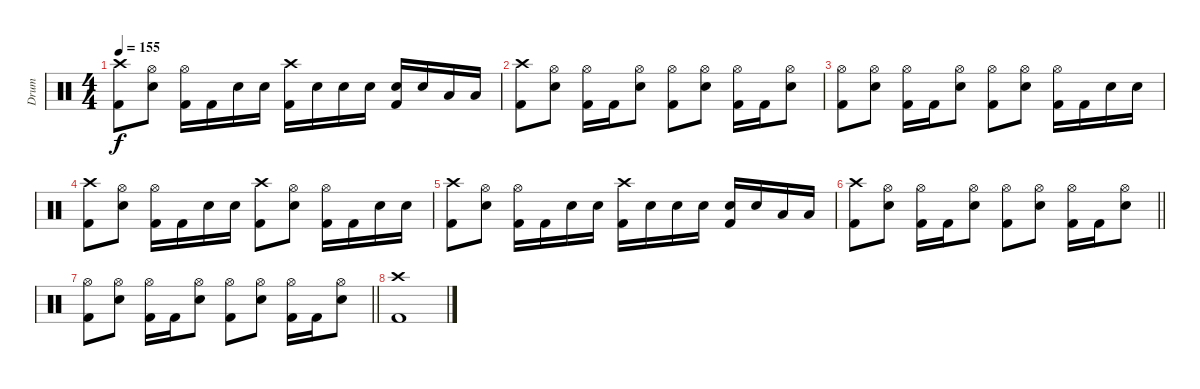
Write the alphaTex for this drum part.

\track ("Drum" "Drum") {solo instrument percussion}
\staff {score}
\articulation defaults
\ts (4 4)
\tempo 155
\clef neutral
\ks c
("Crash high (hit)" "Kick (hit) 2").8{dy f} ("Hi-Hat (open)" "Electric Snare (hit)").8 ("Kick (hit) 2" "Hi-Hat (open)").16 "Kick (hit) 2".16 "Electric Snare (hit)".16 "Electric Snare (hit)".16 ("Crash high (hit)" "Kick (hit) 2").16 "Electric Snare (hit)".16 "Electric Snare (hit)".16 "Electric Snare (hit)".16 ("Electric Snare (hit)" "Kick (hit) 2").16 "Electric Snare (hit)".16 "Low Tom (hit)".16 "Low Tom (hit)".16 |
("Crash high (hit)" "Kick (hit) 2").8 ("Hi-Hat (open)" "Electric Snare (hit)").8 ("Hi-Hat (open)" "Kick (hit) 2").16 "Kick (hit) 2".16 ("Hi-Hat (open)" "Electric Snare (hit)").8 ("Hi-Hat (open)" "Kick (hit) 2").8 ("Hi-Hat (open)" "Electric Snare (hit)").8 ("Kick (hit) 2" "Hi-Hat (open)").16 "Kick (hit) 2".16 ("Hi-Hat (open)" "Electric Snare (hit)").8 |
("Hi-Hat (open)" "Kick (hit) 2").8 ("Hi-Hat (open)" "Electric Snare (hit)").8 ("Hi-Hat (open)" "Kick (hit) 2").16 "Kick (hit) 2".16 ("Hi-Hat (open)" "Electric Snare (hit)").8 ("Hi-Hat (open)" "Kick (hit) 2").8 ("Hi-Hat (open)" "Electric Snare (hit)").8 ("Kick (hit) 2" "Hi-Hat (open)").16 "Kick (hit) 2".16 "Electric Snare (hit)".16 "Electric Snare (hit)".16 |
("Crash high (hit)" "Kick (hit) 2").8 ("Hi-Hat (open)" "Electric Snare (hit)").8 ("Kick (hit) 2" "Hi-Hat (open)").16 "Kick (hit) 2".16 "Electric Snare (hit)".16 "Electric Snare (hit)".16 ("Crash high (hit)" "Kick (hit) 2").8 ("Hi-Hat (open)" "Electric Snare (hit)").8 ("Kick (hit) 2" "Hi-Hat (open)").16 "Kick (hit) 2".16 "Electric Snare (hit)".16 "Electric Snare (hit)".16 |
("Crash high (hit)" "Kick (hit) 2").8 ("Hi-Hat (open)" "Electric Snare (hit)").8 ("Kick (hit) 2" "Hi-Hat (open)").16 "Kick (hit) 2".16 "Electric Snare (hit)".16 "Electric Snare (hit)".16 ("Crash high (hit)" "Kick (hit) 2").16 "Electric Snare (hit)".16 "Electric Snare (hit)".16 "Electric Snare (hit)".16 ("Electric Snare (hit)" "Kick (hit) 2").16 "Electric Snare (hit)".16 "Low Tom (hit)".16 "Low Tom (hit)".16 |
\barLineRight lightlight
("Crash high (hit)" "Kick (hit) 2").8 ("Hi-Hat (open)" "Electric Snare (hit)").8 ("Kick (hit) 2" "Hi-Hat (open)").16 "Kick (hit) 2".16 ("Hi-Hat (open)" "Electric Snare (hit)").8 ("Hi-Hat (open)" "Kick (hit) 2").8 ("Hi-Hat (open)" "Electric Snare (hit)").8 ("Kick (hit) 2" "Hi-Hat (open)").16 "Kick (hit) 2".16 ("Hi-Hat (open)" "Electric Snare (hit)").8 |
\barLineRight lightlight
("Hi-Hat (open)" "Kick (hit) 2").8 ("Hi-Hat (open)" "Electric Snare (hit)").8 ("Kick (hit) 2" "Hi-Hat (open)").16 "Kick (hit) 2".16 ("Hi-Hat (open)" "Electric Snare (hit)").8 ("Hi-Hat (open)" "Kick (hit) 2").8 ("Hi-Hat (open)" "Electric Snare (hit)").8 ("Kick (hit) 2" "Hi-Hat (open)").16 "Kick (hit) 2".16 ("Hi-Hat (open)" "Electric Snare (hit)").8 |
("Crash high (hit)" "Kick (hit) 2").1
